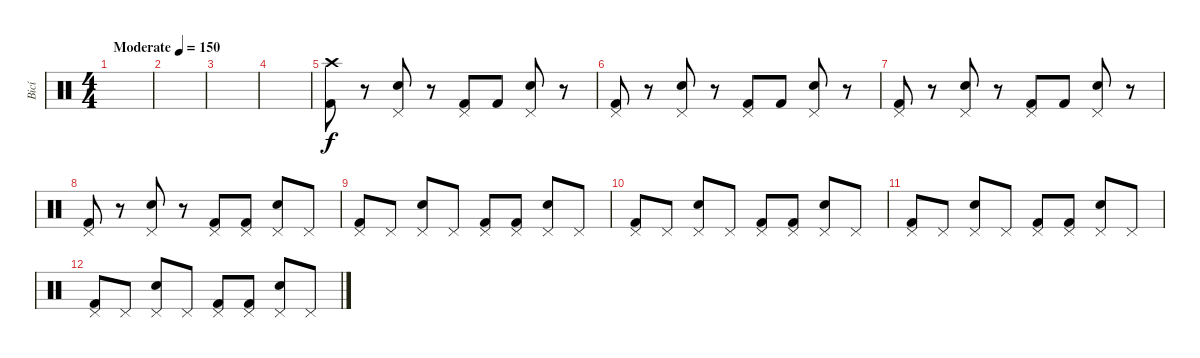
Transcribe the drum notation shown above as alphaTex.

\track ("Bicí" "Bicí") {instrument percussion}
\staff {score}
\articulation defaults
\ts (4 4)
\tempo (150 "Moderate")
\clef neutral
\ks c
|
|
|
|
("Kick (hit) 2" "Crash high (hit)").8 r.8 ("Snare (hit) 2" "Pedal Hi-Hat (hit)").8 r.8 ("Kick (hit) 2" "Pedal Hi-Hat (hit)").8 "Kick (hit) 2".8 ("Snare (hit) 2" "Pedal Hi-Hat (hit)").8 r.8 |
("Kick (hit) 2" "Pedal Hi-Hat (hit)").8 r.8 ("Snare (hit) 2" "Pedal Hi-Hat (hit)").8 r.8 ("Kick (hit) 2" "Pedal Hi-Hat (hit)").8 "Kick (hit) 2".8 ("Snare (hit) 2" "Pedal Hi-Hat (hit)").8 r.8 |
("Kick (hit) 2" "Pedal Hi-Hat (hit)").8 r.8 ("Snare (hit) 2" "Pedal Hi-Hat (hit)").8 r.8 ("Kick (hit) 2" "Pedal Hi-Hat (hit)").8 "Kick (hit) 2".8 ("Snare (hit) 2" "Pedal Hi-Hat (hit)").8 r.8 |
("Kick (hit) 2" "Pedal Hi-Hat (hit)").8 r.8 ("Snare (hit) 2" "Pedal Hi-Hat (hit)").8 r.8 ("Kick (hit) 2" "Pedal Hi-Hat (hit)").8 ("Kick (hit) 2" "Pedal Hi-Hat (hit)").8 ("Snare (hit) 2" "Pedal Hi-Hat (hit)").8 "Pedal Hi-Hat (hit)".8 |
("Kick (hit) 2" "Pedal Hi-Hat (hit)").8 "Pedal Hi-Hat (hit)".8 ("Snare (hit) 2" "Pedal Hi-Hat (hit)").8 "Pedal Hi-Hat (hit)".8 ("Kick (hit) 2" "Pedal Hi-Hat (hit)").8 ("Kick (hit) 2" "Pedal Hi-Hat (hit)").8 ("Snare (hit) 2" "Pedal Hi-Hat (hit)").8 "Pedal Hi-Hat (hit)".8 |
("Kick (hit) 2" "Pedal Hi-Hat (hit)").8 "Pedal Hi-Hat (hit)".8 ("Snare (hit) 2" "Pedal Hi-Hat (hit)").8 "Pedal Hi-Hat (hit)".8 ("Kick (hit) 2" "Pedal Hi-Hat (hit)").8 ("Kick (hit) 2" "Pedal Hi-Hat (hit)").8 ("Snare (hit) 2" "Pedal Hi-Hat (hit)").8 "Pedal Hi-Hat (hit)".8 |
("Kick (hit) 2" "Pedal Hi-Hat (hit)").8 "Pedal Hi-Hat (hit)".8 ("Snare (hit) 2" "Pedal Hi-Hat (hit)").8 "Pedal Hi-Hat (hit)".8 ("Kick (hit) 2" "Pedal Hi-Hat (hit)").8 ("Kick (hit) 2" "Pedal Hi-Hat (hit)").8 ("Snare (hit) 2" "Pedal Hi-Hat (hit)").8 "Pedal Hi-Hat (hit)".8 |
("Kick (hit) 2" "Pedal Hi-Hat (hit)").8 "Pedal Hi-Hat (hit)".8 ("Snare (hit) 2" "Pedal Hi-Hat (hit)").8 "Pedal Hi-Hat (hit)".8 ("Kick (hit) 2" "Pedal Hi-Hat (hit)").8 ("Kick (hit) 2" "Pedal Hi-Hat (hit)").8 ("Snare (hit) 2" "Pedal Hi-Hat (hit)").8 "Pedal Hi-Hat (hit)".8
